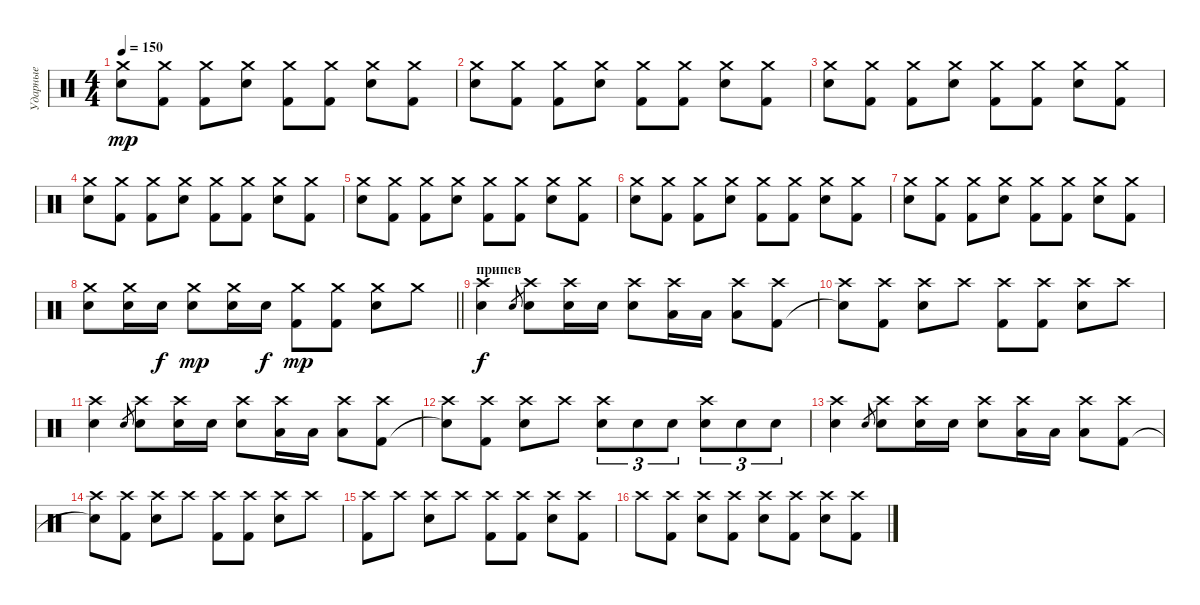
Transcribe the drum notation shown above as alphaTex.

\track ("Ударные" "Ударные") {instrument percussion}
\staff {score}
\articulation defaults
\ts (4 4)
\tempo 150
\clef neutral
\ks c
("Crash medium (hit)" "Snare (hit) 2").8{dy mp} ("Crash medium (hit)" "Kick (hit) 2").8 ("Crash medium (hit)" "Kick (hit) 2").8 ("Crash medium (hit)" "Snare (hit) 2").8 ("Crash medium (hit)" "Kick (hit) 2").8 ("Crash medium (hit)" "Kick (hit) 2").8 ("Crash medium (hit)" "Snare (hit) 2").8 ("Crash medium (hit)" "Kick (hit) 2").8 |
("Crash medium (hit)" "Snare (hit) 2").8 ("Crash medium (hit)" "Kick (hit) 2").8 ("Crash medium (hit)" "Kick (hit) 2").8 ("Crash medium (hit)" "Snare (hit) 2").8 ("Crash medium (hit)" "Kick (hit) 2").8 ("Crash medium (hit)" "Kick (hit) 2").8 ("Crash medium (hit)" "Snare (hit) 2").8 ("Crash medium (hit)" "Kick (hit) 2").8 |
("Crash medium (hit)" "Snare (hit) 2").8 ("Crash medium (hit)" "Kick (hit) 2").8 ("Crash medium (hit)" "Kick (hit) 2").8 ("Crash medium (hit)" "Snare (hit) 2").8 ("Crash medium (hit)" "Kick (hit) 2").8 ("Crash medium (hit)" "Kick (hit) 2").8 ("Crash medium (hit)" "Snare (hit) 2").8 ("Crash medium (hit)" "Kick (hit) 2").8 |
("Crash medium (hit)" "Snare (hit) 2").8 ("Crash medium (hit)" "Kick (hit) 2").8 ("Crash medium (hit)" "Kick (hit) 2").8 ("Crash medium (hit)" "Snare (hit) 2").8 ("Crash medium (hit)" "Kick (hit) 2").8 ("Crash medium (hit)" "Kick (hit) 2").8 ("Crash medium (hit)" "Snare (hit) 2").8 ("Crash medium (hit)" "Kick (hit) 2").8 |
("Crash medium (hit)" "Snare (hit) 2").8 ("Crash medium (hit)" "Kick (hit) 2").8 ("Crash medium (hit)" "Kick (hit) 2").8 ("Crash medium (hit)" "Snare (hit) 2").8 ("Crash medium (hit)" "Kick (hit) 2").8 ("Crash medium (hit)" "Kick (hit) 2").8 ("Crash medium (hit)" "Snare (hit) 2").8 ("Crash medium (hit)" "Kick (hit) 2").8 |
("Crash medium (hit)" "Snare (hit) 2").8 ("Crash medium (hit)" "Kick (hit) 2").8 ("Crash medium (hit)" "Kick (hit) 2").8 ("Crash medium (hit)" "Snare (hit) 2").8 ("Crash medium (hit)" "Kick (hit) 2").8 ("Crash medium (hit)" "Kick (hit) 2").8 ("Crash medium (hit)" "Snare (hit) 2").8 ("Crash medium (hit)" "Kick (hit) 2").8 |
("Crash medium (hit)" "Snare (hit) 2").8 ("Crash medium (hit)" "Kick (hit) 2").8 ("Crash medium (hit)" "Kick (hit) 2").8 ("Crash medium (hit)" "Snare (hit) 2").8 ("Crash medium (hit)" "Kick (hit) 2").8 ("Crash medium (hit)" "Kick (hit) 2").8 ("Crash medium (hit)" "Snare (hit) 2").8 ("Crash medium (hit)" "Kick (hit) 2").8 |
\barLineRight lightlight
("Crash medium (hit)" "Snare (hit) 2").8 ("Crash medium (hit)" "Snare (hit) 2").16 "Snare (hit) 2".16{dy f} ("Crash medium (hit)" "Snare (hit) 2").8{dy mp} ("Crash medium (hit)" "Snare (hit) 2").16 "Snare (hit) 2".16{dy f} ("Crash medium (hit)" "Kick (hit) 2").8{dy mp} ("Crash medium (hit)" "Kick (hit) 2").8 ("Crash medium (hit)" "Snare (hit) 2").8 "Crash medium (hit)".8 |
\section ("" "припев")
("Crash high (hit)" "Snare (hit) 2").4{dy f} "Snare (hit) 2".8{gr} ("Crash high (hit)" "Snare (hit) 2").8 ("Crash high (hit)" "Snare (hit) 2").16 "Snare (hit) 2".16 ("Crash high (hit)" "Snare (hit) 2").8 ("Crash high (hit)" "Low Floor Tom (hit)").16 "Low Floor Tom (hit)".16 ("Crash high (hit)" "Low Floor Tom (hit)").8 ("Crash high (hit)" "Kick (hit) 2").8 |
("Crash high (hit)" "Snare (hit)"{t}).8 ("Crash high (hit)" "Kick (hit) 2").8 ("Crash high (hit)" "Snare (hit) 2").8 "Crash high (hit)".8 ("Crash high (hit)" "Kick (hit) 2").8 ("Crash high (hit)" "Kick (hit) 2").8 ("Crash high (hit)" "Snare (hit) 2").8 "Crash high (hit)".8 |
("Crash high (hit)" "Snare (hit) 2").4 "Snare (hit) 2".8{gr} ("Crash high (hit)" "Snare (hit) 2").8 ("Crash high (hit)" "Snare (hit) 2").16 "Snare (hit) 2".16 ("Crash high (hit)" "Snare (hit) 2").8 ("Crash high (hit)" "Low Floor Tom (hit)").16 "Low Floor Tom (hit)".16 ("Crash high (hit)" "Low Floor Tom (hit)").8 ("Crash high (hit)" "Kick (hit) 2").8 |
("Crash high (hit)" "Snare (hit)"{t}).8 ("Crash high (hit)" "Kick (hit) 2").8 ("Crash high (hit)" "Snare (hit) 2").8 "Crash high (hit)".8 ("Crash high (hit)" "Snare (hit) 2").8{tu (3 2)} "Snare (hit) 2".8{tu (3 2)} "Snare (hit) 2".8{tu (3 2)} ("Crash high (hit)" "Snare (hit) 2").8{tu (3 2)} "Snare (hit) 2".8{tu (3 2)} "Snare (hit) 2".8{tu (3 2)} |
("Crash high (hit)" "Snare (hit) 2").4 "Snare (hit) 2".8{gr} ("Crash high (hit)" "Snare (hit) 2").8 ("Crash high (hit)" "Snare (hit) 2").16 "Snare (hit) 2".16 ("Crash high (hit)" "Snare (hit) 2").8 ("Crash high (hit)" "Low Floor Tom (hit)").16 "Low Floor Tom (hit)".16 ("Crash high (hit)" "Low Floor Tom (hit)").8 ("Crash high (hit)" "Kick (hit) 2").8 |
("Crash high (hit)" "Snare (hit)"{t}).8 ("Crash high (hit)" "Kick (hit) 2").8 ("Crash high (hit)" "Snare (hit) 2").8 "Crash high (hit)".8 ("Crash high (hit)" "Kick (hit) 2").8 ("Crash high (hit)" "Kick (hit) 2").8 ("Crash high (hit)" "Snare (hit) 2").8 "Crash high (hit)".8 |
("Crash high (hit)" "Kick (hit) 2").8 "Crash high (hit)".8 ("Crash high (hit)" "Snare (hit) 2").8 "Crash high (hit)".8 ("Crash high (hit)" "Kick (hit) 2").8 ("Crash high (hit)" "Kick (hit) 2").8 ("Crash high (hit)" "Snare (hit) 2").8 ("Crash high (hit)" "Kick (hit) 2").8 |
"Crash high (hit)".8 ("Crash high (hit)" "Kick (hit) 2").8 ("Crash high (hit)" "Snare (hit) 2").8 ("Crash high (hit)" "Kick (hit) 2").8 ("Crash high (hit)" "Snare (hit) 2").8 ("Crash high (hit)" "Kick (hit) 2").8 ("Crash high (hit)" "Snare (hit) 2").8 ("Crash high (hit)" "Kick (hit) 2").8
